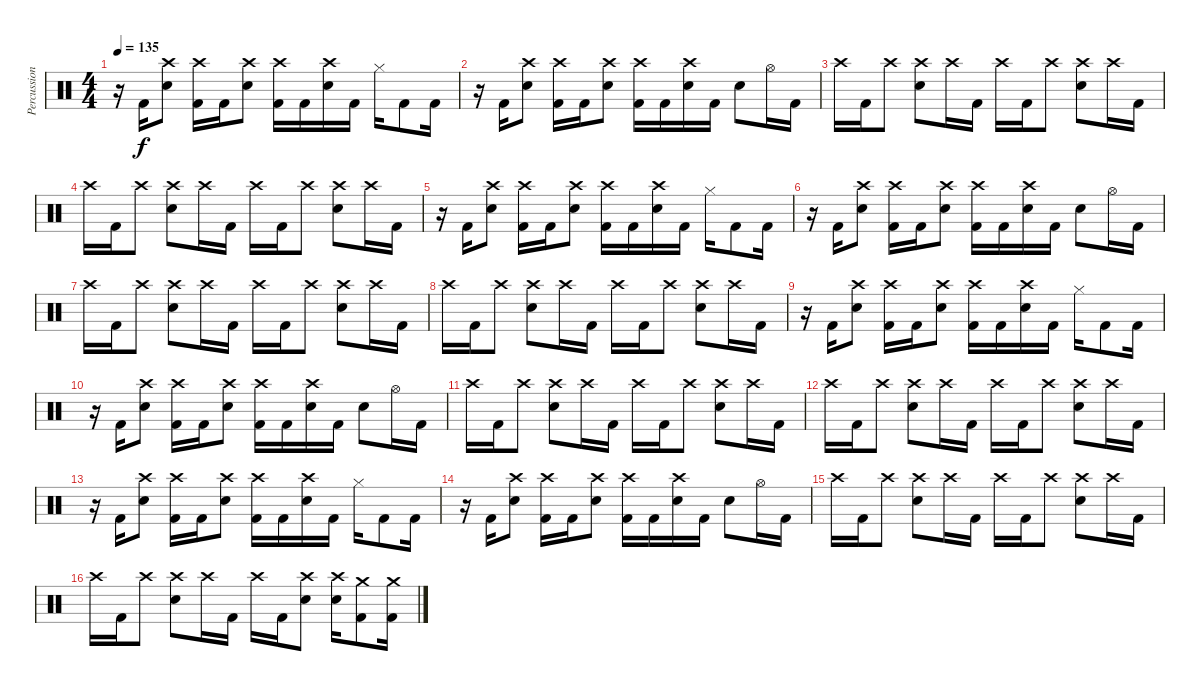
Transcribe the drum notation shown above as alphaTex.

\track ("Percussion" "Percussion") {instrument percussion}
\staff
\articulation defaults
\ts (4 4)
\tempo 135
\clef neutral
\ks c
r.16{dy f} "Kick (hit) 2".16 ("Crash high (hit)" "Electric Snare (hit)").8 ("Crash high (hit)" "Kick (hit) 2").16 "Kick (hit) 2".16 ("Crash high (hit)" "Electric Snare (hit)").8 ("Crash high (hit)" "Kick (hit) 2").16 "Kick (hit) 2".16 ("Crash high (hit)" "Electric Snare (hit)").16 "Kick (hit) 2".16 "Hi-Hat (closed)".16 "Kick (hit) 2".8 "Kick (hit) 2".16 |
r.16 "Kick (hit) 2".16 ("Crash high (hit)" "Electric Snare (hit)").8 ("Crash high (hit)" "Kick (hit) 2").16 "Kick (hit) 2".16 ("Crash high (hit)" "Electric Snare (hit)").8 ("Crash high (hit)" "Kick (hit) 2").16 "Kick (hit) 2".16 ("Crash high (hit)" "Electric Snare (hit)").16 "Kick (hit) 2".16 "Electric Snare (hit)".8 "Hi-Hat (open)".16 "Kick (hit) 2".16 |
"Crash high (hit)".16 "Kick (hit) 2".16 "Crash high (hit)".8 ("Crash high (hit)" "Electric Snare (hit)").8 "Crash high (hit)".16 "Kick (hit) 2".16 "Crash high (hit)".16 "Kick (hit) 2".16 "Crash high (hit)".8 ("Crash high (hit)" "Electric Snare (hit)").8 "Crash high (hit)".16 "Kick (hit) 2".16 |
"Crash high (hit)".16 "Kick (hit) 2".16 "Crash high (hit)".8 ("Crash high (hit)" "Electric Snare (hit)").8 "Crash high (hit)".16 "Kick (hit) 2".16 "Crash high (hit)".16 "Kick (hit) 2".16 "Crash high (hit)".8 ("Crash high (hit)" "Electric Snare (hit)").8 "Crash high (hit)".16 "Kick (hit) 2".16 |
r.16 "Kick (hit) 2".16 ("Crash high (hit)" "Electric Snare (hit)").8 ("Crash high (hit)" "Kick (hit) 2").16 "Kick (hit) 2".16 ("Crash high (hit)" "Electric Snare (hit)").8 ("Crash high (hit)" "Kick (hit) 2").16 "Kick (hit) 2".16 ("Crash high (hit)" "Electric Snare (hit)").16 "Kick (hit) 2".16 "Hi-Hat (closed)".16 "Kick (hit) 2".8 "Kick (hit) 2".16 |
r.16 "Kick (hit) 2".16 ("Crash high (hit)" "Electric Snare (hit)").8 ("Crash high (hit)" "Kick (hit) 2").16 "Kick (hit) 2".16 ("Crash high (hit)" "Electric Snare (hit)").8 ("Crash high (hit)" "Kick (hit) 2").16 "Kick (hit) 2".16 ("Crash high (hit)" "Electric Snare (hit)").16 "Kick (hit) 2".16 "Electric Snare (hit)".8 "Hi-Hat (open)".16 "Kick (hit) 2".16 |
"Crash high (hit)".16 "Kick (hit) 2".16 "Crash high (hit)".8 ("Crash high (hit)" "Electric Snare (hit)").8 "Crash high (hit)".16 "Kick (hit) 2".16 "Crash high (hit)".16 "Kick (hit) 2".16 "Crash high (hit)".8 ("Crash high (hit)" "Electric Snare (hit)").8 "Crash high (hit)".16 "Kick (hit) 2".16 |
"Crash high (hit)".16 "Kick (hit) 2".16 "Crash high (hit)".8 ("Crash high (hit)" "Electric Snare (hit)").8 "Crash high (hit)".16 "Kick (hit) 2".16 "Crash high (hit)".16 "Kick (hit) 2".16 "Crash high (hit)".8 ("Crash high (hit)" "Electric Snare (hit)").8 "Crash high (hit)".16 "Kick (hit) 2".16 |
r.16 "Kick (hit) 2".16 ("Crash high (hit)" "Electric Snare (hit)").8 ("Crash high (hit)" "Kick (hit) 2").16 "Kick (hit) 2".16 ("Crash high (hit)" "Electric Snare (hit)").8 ("Crash high (hit)" "Kick (hit) 2").16 "Kick (hit) 2".16 ("Crash high (hit)" "Electric Snare (hit)").16 "Kick (hit) 2".16 "Hi-Hat (closed)".16 "Kick (hit) 2".8 "Kick (hit) 2".16 |
r.16 "Kick (hit) 2".16 ("Crash high (hit)" "Electric Snare (hit)").8 ("Crash high (hit)" "Kick (hit) 2").16 "Kick (hit) 2".16 ("Crash high (hit)" "Electric Snare (hit)").8 ("Crash high (hit)" "Kick (hit) 2").16 "Kick (hit) 2".16 ("Crash high (hit)" "Electric Snare (hit)").16 "Kick (hit) 2".16 "Electric Snare (hit)".8 "Hi-Hat (open)".16 "Kick (hit) 2".16 |
"Crash high (hit)".16 "Kick (hit) 2".16 "Crash high (hit)".8 ("Crash high (hit)" "Electric Snare (hit)").8 "Crash high (hit)".16 "Kick (hit) 2".16 "Crash high (hit)".16 "Kick (hit) 2".16 "Crash high (hit)".8 ("Crash high (hit)" "Electric Snare (hit)").8 "Crash high (hit)".16 "Kick (hit) 2".16 |
"Crash high (hit)".16 "Kick (hit) 2".16 "Crash high (hit)".8 ("Crash high (hit)" "Electric Snare (hit)").8 "Crash high (hit)".16 "Kick (hit) 2".16 "Crash high (hit)".16 "Kick (hit) 2".16 "Crash high (hit)".8 ("Crash high (hit)" "Electric Snare (hit)").8 "Crash high (hit)".16 "Kick (hit) 2".16 |
r.16 "Kick (hit) 2".16 ("Crash high (hit)" "Electric Snare (hit)").8 ("Crash high (hit)" "Kick (hit) 2").16 "Kick (hit) 2".16 ("Crash high (hit)" "Electric Snare (hit)").8 ("Crash high (hit)" "Kick (hit) 2").16 "Kick (hit) 2".16 ("Crash high (hit)" "Electric Snare (hit)").16 "Kick (hit) 2".16 "Hi-Hat (closed)".16 "Kick (hit) 2".8 "Kick (hit) 2".16 |
r.16 "Kick (hit) 2".16 ("Crash high (hit)" "Electric Snare (hit)").8 ("Crash high (hit)" "Kick (hit) 2").16 "Kick (hit) 2".16 ("Crash high (hit)" "Electric Snare (hit)").8 ("Crash high (hit)" "Kick (hit) 2").16 "Kick (hit) 2".16 ("Crash high (hit)" "Electric Snare (hit)").16 "Kick (hit) 2".16 "Electric Snare (hit)".8 "Hi-Hat (open)".16 "Kick (hit) 2".16 |
"Crash high (hit)".16 "Kick (hit) 2".16 "Crash high (hit)".8 ("Crash high (hit)" "Electric Snare (hit)").8 "Crash high (hit)".16 "Kick (hit) 2".16 "Crash high (hit)".16 "Kick (hit) 2".16 "Crash high (hit)".8 ("Crash high (hit)" "Electric Snare (hit)").8 "Crash high (hit)".16 "Kick (hit) 2".16 |
"Crash high (hit)".16 "Kick (hit) 2".16 "Crash high (hit)".8 ("Crash high (hit)" "Electric Snare (hit)").8 "Crash high (hit)".16 "Kick (hit) 2".16 "Crash high (hit)".16 "Kick (hit) 2".16 ("Crash high (hit)" "Electric Snare (hit)").8 ("Crash high (hit)" "Electric Snare (hit)").16 ("Crash medium (hit)" "Kick (hit) 2").8 ("Crash medium (hit)" "Kick (hit) 2").16
